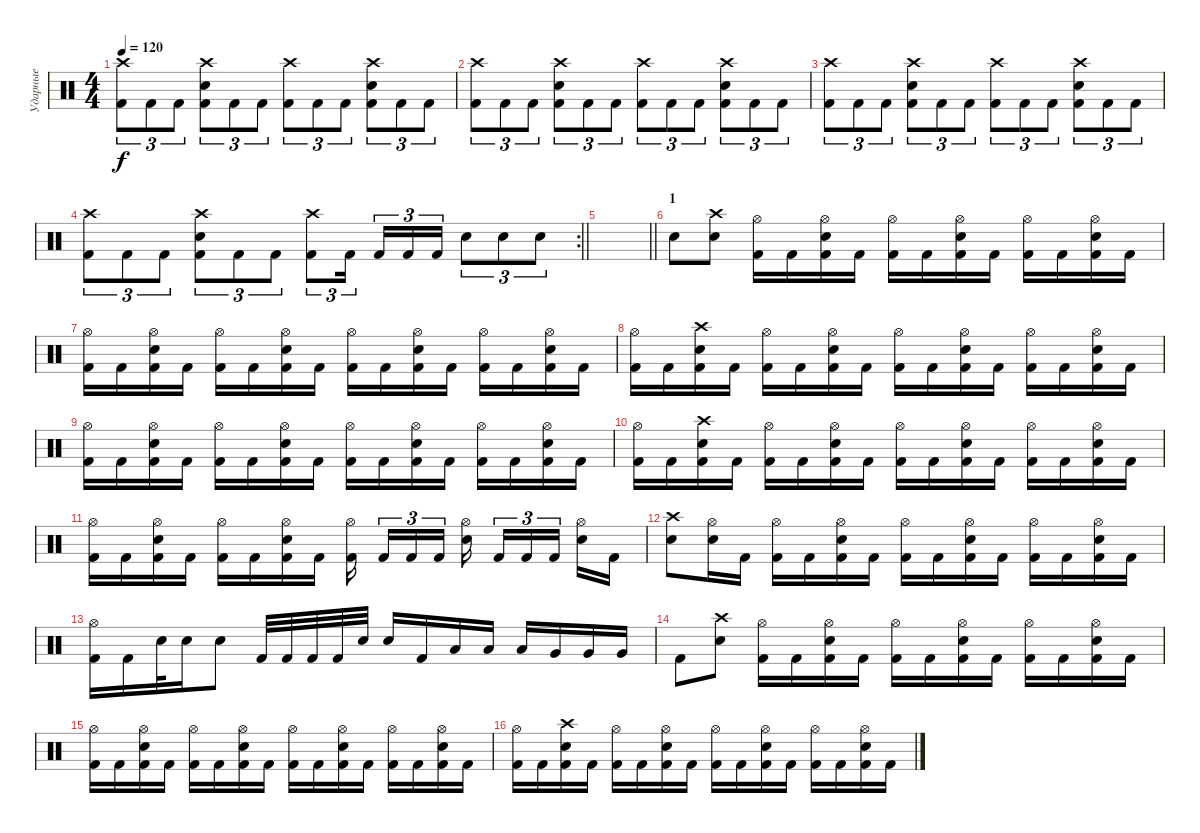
\track ("Ударные" "Ударные") {instrument percussion}
\staff {score}
\articulation defaults
\ts (4 4)
\tempo 120
\clef neutral
\ks c
("Crash high (hit)" "Kick (hit) 2").8{tu (3 2) dy f} "Kick (hit) 2".8{tu (3 2)} "Kick (hit) 2".8{tu (3 2)} ("Crash high (hit)" "Electric Snare (hit)" "Kick (hit) 2").8{tu (3 2)} "Kick (hit) 2".8{tu (3 2)} "Kick (hit) 2".8{tu (3 2)} ("Crash high (hit)" "Kick (hit) 2").8{tu (3 2)} "Kick (hit) 2".8{tu (3 2)} "Kick (hit) 2".8{tu (3 2)} ("Crash high (hit)" "Electric Snare (hit)" "Kick (hit) 2").8{tu (3 2)} "Kick (hit) 2".8{tu (3 2)} "Kick (hit) 2".8{tu (3 2)} |
("Crash high (hit)" "Kick (hit) 2").8{tu (3 2)} "Kick (hit) 2".8{tu (3 2)} "Kick (hit) 2".8{tu (3 2)} ("Crash high (hit)" "Electric Snare (hit)" "Kick (hit) 2").8{tu (3 2)} "Kick (hit) 2".8{tu (3 2)} "Kick (hit) 2".8{tu (3 2)} ("Crash high (hit)" "Kick (hit) 2").8{tu (3 2)} "Kick (hit) 2".8{tu (3 2)} "Kick (hit) 2".8{tu (3 2)} ("Crash high (hit)" "Electric Snare (hit)" "Kick (hit) 2").8{tu (3 2)} "Kick (hit) 2".8{tu (3 2)} "Kick (hit) 2".8{tu (3 2)} |
("Crash high (hit)" "Kick (hit) 2").8{tu (3 2)} "Kick (hit) 2".8{tu (3 2)} "Kick (hit) 2".8{tu (3 2)} ("Crash high (hit)" "Electric Snare (hit)" "Kick (hit) 2").8{tu (3 2)} "Kick (hit) 2".8{tu (3 2)} "Kick (hit) 2".8{tu (3 2)} ("Crash high (hit)" "Kick (hit) 2").8{tu (3 2)} "Kick (hit) 2".8{tu (3 2)} "Kick (hit) 2".8{tu (3 2)} ("Crash high (hit)" "Electric Snare (hit)" "Kick (hit) 2").8{tu (3 2)} "Kick (hit) 2".8{tu (3 2)} "Kick (hit) 2".8{tu (3 2)} |
\rc 2
\barLineRight lightlight
("Crash high (hit)" "Kick (hit) 2").8{tu (3 2)} "Kick (hit) 2".8{tu (3 2)} "Kick (hit) 2".8{tu (3 2)} ("Crash high (hit)" "Electric Snare (hit)" "Kick (hit) 2").8{tu (3 2)} "Kick (hit) 2".8{tu (3 2)} "Kick (hit) 2".8{tu (3 2)} ("Crash high (hit)" "Kick (hit) 2").8{tu (3 2)} "Kick (hit) 2".16{tu (3 2)} "Kick (hit) 2".16{tu (3 2)} "Kick (hit) 2".16{tu (3 2)} "Kick (hit) 2".16{tu (3 2)} "Electric Snare (hit)".8{tu (3 2)} "Electric Snare (hit)".8{tu (3 2)} "Electric Snare (hit)".8{tu (3 2)} |
\section ("" "")
\barLineRight lightlight
|
\section ("" "1")
"Electric Snare (hit)".8 ("Crash high (hit)" "Electric Snare (hit)").8 ("Hi-Hat (open)" "Kick (hit) 2").16 "Kick (hit) 2".16 ("Hi-Hat (open)" "Electric Snare (hit)" "Kick (hit) 2").16 "Kick (hit) 2".16 ("Hi-Hat (open)" "Kick (hit) 2").16 "Kick (hit) 2".16 ("Hi-Hat (open)" "Electric Snare (hit)" "Kick (hit) 2").16 "Kick (hit) 2".16 ("Hi-Hat (open)" "Kick (hit) 2").16 "Kick (hit) 2".16 ("Hi-Hat (open)" "Electric Snare (hit)" "Kick (hit) 2").16 "Kick (hit) 2".16 |
("Hi-Hat (open)" "Kick (hit) 2").16 "Kick (hit) 2".16 ("Hi-Hat (open)" "Electric Snare (hit)" "Kick (hit) 2").16 "Kick (hit) 2".16 ("Hi-Hat (open)" "Kick (hit) 2").16 "Kick (hit) 2".16 ("Hi-Hat (open)" "Electric Snare (hit)" "Kick (hit) 2").16 "Kick (hit) 2".16 ("Hi-Hat (open)" "Kick (hit) 2").16 "Kick (hit) 2".16 ("Hi-Hat (open)" "Electric Snare (hit)" "Kick (hit) 2").16 "Kick (hit) 2".16 ("Hi-Hat (open)" "Kick (hit) 2").16 "Kick (hit) 2".16 ("Hi-Hat (open)" "Electric Snare (hit)" "Kick (hit) 2").16 "Kick (hit) 2".16 |
("Hi-Hat (open)" "Kick (hit) 2").16 "Kick (hit) 2".16 ("Crash high (hit)" "Electric Snare (hit)" "Kick (hit) 2").16 "Kick (hit) 2".16 ("Hi-Hat (open)" "Kick (hit) 2").16 "Kick (hit) 2".16 ("Hi-Hat (open)" "Electric Snare (hit)" "Kick (hit) 2").16 "Kick (hit) 2".16 ("Hi-Hat (open)" "Kick (hit) 2").16 "Kick (hit) 2".16 ("Hi-Hat (open)" "Electric Snare (hit)" "Kick (hit) 2").16 "Kick (hit) 2".16 ("Hi-Hat (open)" "Kick (hit) 2").16 "Kick (hit) 2".16 ("Hi-Hat (open)" "Electric Snare (hit)" "Kick (hit) 2").16 "Kick (hit) 2".16 |
("Hi-Hat (open)" "Kick (hit) 2").16 "Kick (hit) 2".16 ("Hi-Hat (open)" "Electric Snare (hit)" "Kick (hit) 2").16 "Kick (hit) 2".16 ("Hi-Hat (open)" "Kick (hit) 2").16 "Kick (hit) 2".16 ("Hi-Hat (open)" "Electric Snare (hit)" "Kick (hit) 2").16 "Kick (hit) 2".16 ("Hi-Hat (open)" "Kick (hit) 2").16 "Kick (hit) 2".16 ("Hi-Hat (open)" "Electric Snare (hit)" "Kick (hit) 2").16 "Kick (hit) 2".16 ("Hi-Hat (open)" "Kick (hit) 2").16 "Kick (hit) 2".16 ("Hi-Hat (open)" "Electric Snare (hit)" "Kick (hit) 2").16 "Kick (hit) 2".16 |
("Hi-Hat (open)" "Kick (hit) 2").16 "Kick (hit) 2".16 ("Crash high (hit)" "Electric Snare (hit)" "Kick (hit) 2").16 "Kick (hit) 2".16 ("Hi-Hat (open)" "Kick (hit) 2").16 "Kick (hit) 2".16 ("Hi-Hat (open)" "Electric Snare (hit)" "Kick (hit) 2").16 "Kick (hit) 2".16 ("Hi-Hat (open)" "Kick (hit) 2").16 "Kick (hit) 2".16 ("Hi-Hat (open)" "Electric Snare (hit)" "Kick (hit) 2").16 "Kick (hit) 2".16 ("Hi-Hat (open)" "Kick (hit) 2").16 "Kick (hit) 2".16 ("Hi-Hat (open)" "Electric Snare (hit)" "Kick (hit) 2").16 "Kick (hit) 2".16 |
("Hi-Hat (open)" "Kick (hit) 2").16 "Kick (hit) 2".16 ("Hi-Hat (open)" "Electric Snare (hit)" "Kick (hit) 2").16 "Kick (hit) 2".16 ("Hi-Hat (open)" "Kick (hit) 2").16 "Kick (hit) 2".16 ("Hi-Hat (open)" "Electric Snare (hit)" "Kick (hit) 2").16 "Kick (hit) 2".16 ("Hi-Hat (open)" "Kick (hit) 2").16 "Kick (hit) 2".16{tu (3 2)} "Kick (hit) 2".16{tu (3 2)} "Kick (hit) 2".16{tu (3 2)} ("Hi-Hat (open)" "Electric Snare (hit)").16 "Kick (hit) 2".16{tu (3 2)} "Kick (hit) 2".16{tu (3 2)} "Kick (hit) 2".16{tu (3 2)} ("Hi-Hat (open)" "Electric Snare (hit)").16 "Kick (hit) 2".16 |
("Crash high (hit)" "Electric Snare (hit)").8 ("Hi-Hat (open)" "Electric Snare (hit)").16 "Kick (hit) 2".16 ("Hi-Hat (open)" "Kick (hit) 2").16 "Kick (hit) 2".16 ("Hi-Hat (open)" "Electric Snare (hit)" "Kick (hit) 2").16 "Kick (hit) 2".16 ("Hi-Hat (open)" "Kick (hit) 2").16 "Kick (hit) 2".16 ("Hi-Hat (open)" "Electric Snare (hit)" "Kick (hit) 2").16 "Kick (hit) 2".16 ("Hi-Hat (open)" "Kick (hit) 2").16 "Kick (hit) 2".16 ("Hi-Hat (open)" "Electric Snare (hit)" "Kick (hit) 2").16 "Kick (hit) 2".16 |
("Hi-Hat (open)" "Kick (hit) 2").16 "Kick (hit) 2".16 "Electric Snare (hit)".32 "Electric Snare (hit)".16 "Electric Snare (hit)".8 "Kick (hit) 2".32 "Kick (hit) 2".32 "Kick (hit) 2".32 "Kick (hit) 2".32 "Electric Snare (hit)".32 "Electric Snare (hit)".16 "Kick (hit) 2".16 "Low Tom (hit)".16 "Low Tom (hit)".16 "Low Tom (hit)".16 "Very Low Tom (hit)".16 "Very Low Tom (hit)".16 "Very Low Tom (hit)".16 |
"Kick (hit) 2".8 ("Crash high (hit)" "Electric Snare (hit)").8 ("Hi-Hat (open)" "Kick (hit) 2").16 "Kick (hit) 2".16 ("Hi-Hat (open)" "Electric Snare (hit)" "Kick (hit) 2").16 "Kick (hit) 2".16 ("Hi-Hat (open)" "Kick (hit) 2").16 "Kick (hit) 2".16 ("Hi-Hat (open)" "Electric Snare (hit)" "Kick (hit) 2").16 "Kick (hit) 2".16 ("Hi-Hat (open)" "Kick (hit) 2").16 "Kick (hit) 2".16 ("Hi-Hat (open)" "Electric Snare (hit)" "Kick (hit) 2").16 "Kick (hit) 2".16 |
("Hi-Hat (open)" "Kick (hit) 2").16 "Kick (hit) 2".16 ("Hi-Hat (open)" "Electric Snare (hit)" "Kick (hit) 2").16 "Kick (hit) 2".16 ("Hi-Hat (open)" "Kick (hit) 2").16 "Kick (hit) 2".16 ("Hi-Hat (open)" "Electric Snare (hit)" "Kick (hit) 2").16 "Kick (hit) 2".16 ("Hi-Hat (open)" "Kick (hit) 2").16 "Kick (hit) 2".16 ("Hi-Hat (open)" "Electric Snare (hit)" "Kick (hit) 2").16 "Kick (hit) 2".16 ("Hi-Hat (open)" "Kick (hit) 2").16 "Kick (hit) 2".16 ("Hi-Hat (open)" "Electric Snare (hit)" "Kick (hit) 2").16 "Kick (hit) 2".16 |
("Hi-Hat (open)" "Kick (hit) 2").16 "Kick (hit) 2".16 ("Crash high (hit)" "Electric Snare (hit)" "Kick (hit) 2").16 "Kick (hit) 2".16 ("Hi-Hat (open)" "Kick (hit) 2").16 "Kick (hit) 2".16 ("Hi-Hat (open)" "Electric Snare (hit)" "Kick (hit) 2").16 "Kick (hit) 2".16 ("Hi-Hat (open)" "Kick (hit) 2").16 "Kick (hit) 2".16 ("Hi-Hat (open)" "Electric Snare (hit)" "Kick (hit) 2").16 "Kick (hit) 2".16 ("Hi-Hat (open)" "Kick (hit) 2").16 "Kick (hit) 2".16 ("Hi-Hat (open)" "Electric Snare (hit)" "Kick (hit) 2").16 "Kick (hit) 2".16
